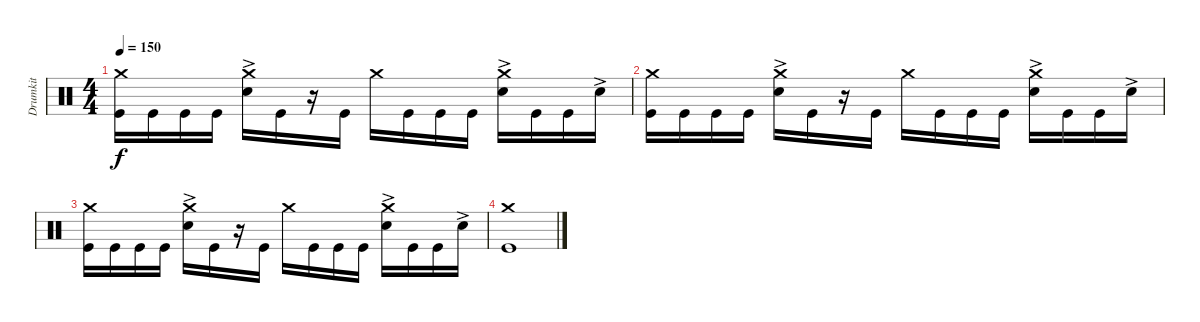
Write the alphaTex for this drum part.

\track ("Drumkit" "Drumkit") {instrument percussion}
\staff {score}
\articulation defaults
\ts (4 4)
\tempo 150
\clef neutral
\ks c
("Crash medium (hit)" "Kick (hit)").16{dy f} "Kick (hit)".16 "Kick (hit)".16 "Kick (hit)".16 ("Crash medium (hit)" "Snare (hit) 2"{ac}).16 "Kick (hit)".16 r.16 "Kick (hit)".16 "Crash medium (hit)".16 "Kick (hit)".16 "Kick (hit)".16 "Kick (hit)".16 ("Crash medium (hit)" "Snare (hit) 2"{ac}).16 "Kick (hit)".16 "Kick (hit)".16 "Snare (hit) 2"{ac}.16 |
("Crash medium (hit)" "Kick (hit)").16 "Kick (hit)".16 "Kick (hit)".16 "Kick (hit)".16 ("Crash medium (hit)" "Snare (hit) 2"{ac}).16 "Kick (hit)".16 r.16 "Kick (hit)".16 "Crash medium (hit)".16 "Kick (hit)".16 "Kick (hit)".16 "Kick (hit)".16 ("Crash medium (hit)" "Snare (hit) 2"{ac}).16 "Kick (hit)".16 "Kick (hit)".16 "Snare (hit) 2"{ac}.16 |
("Crash medium (hit)" "Kick (hit)").16 "Kick (hit)".16 "Kick (hit)".16 "Kick (hit)".16 ("Crash medium (hit)" "Snare (hit) 2"{ac}).16 "Kick (hit)".16 r.16 "Kick (hit)".16 "Crash medium (hit)".16 "Kick (hit)".16 "Kick (hit)".16 "Kick (hit)".16 ("Crash medium (hit)" "Snare (hit) 2"{ac}).16 "Kick (hit)".16 "Kick (hit)".16 "Snare (hit) 2"{ac}.16 |
("Crash medium (hit)" "Kick (hit)").1
